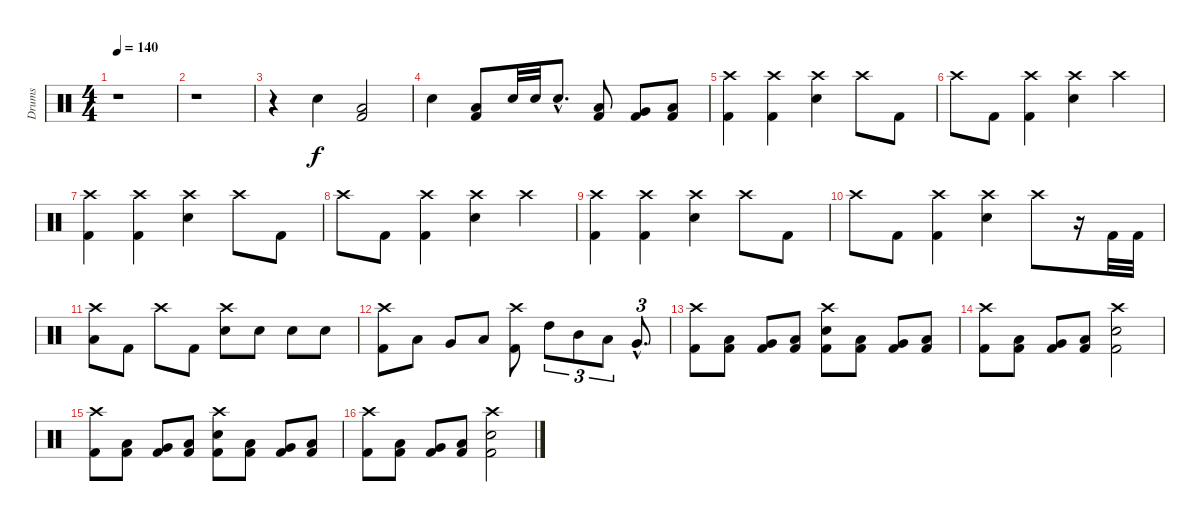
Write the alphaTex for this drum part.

\track ("Drums" "Drums") {instrument percussion}
\staff {score}
\articulation defaults
\ts (4 4)
\tempo 140
\clef neutral
\ks c
r.1{dy f} |
r.1 |
r.4 "Electric Snare (hit)".4 ("Low Floor Tom (hit)" "Kick (hit) 2").2 |
"Electric Snare (hit)".4 ("Low Floor Tom (hit)" "Kick (hit) 2").8 "Electric Snare (hit)".32 "Electric Snare (hit)".32 "Electric Snare (hit)"{hac}.8{d} ("Low Tom (hit)" "Kick (hit) 2").8 ("Very Low Tom (hit)" "Kick (hit) 2").8 ("Low Floor Tom (hit)" "Kick (hit) 2").8 |
("Crash high (hit)" "Kick (hit) 2").4 ("Crash high (hit)" "Kick (hit) 2").4 ("Crash high (hit)" "Electric Snare (hit)").4 "Crash high (hit)".8 "Kick (hit) 2".8 |
"Crash high (hit)".8 "Kick (hit) 2".8 ("Crash high (hit)" "Kick (hit) 2").4 ("Crash high (hit)" "Electric Snare (hit)").4 "Crash high (hit)".4 |
("Crash high (hit)" "Kick (hit) 2").4 ("Crash high (hit)" "Kick (hit) 2").4 ("Crash high (hit)" "Electric Snare (hit)").4 "Crash high (hit)".8 "Kick (hit) 2".8 |
"Crash high (hit)".8 "Kick (hit) 2".8 ("Crash high (hit)" "Kick (hit) 2").4 ("Crash high (hit)" "Electric Snare (hit)").4 "Crash high (hit)".4 |
("Crash high (hit)" "Kick (hit) 2").4 ("Crash high (hit)" "Kick (hit) 2").4 ("Crash high (hit)" "Electric Snare (hit)").4 "Crash high (hit)".8 "Kick (hit) 2".8 |
"Crash high (hit)".8 "Kick (hit) 2".8 ("Crash high (hit)" "Kick (hit) 2").4 ("Crash high (hit)" "Electric Snare (hit)").4 "Crash high (hit)".8 r.16 "Kick (hit) 2".32 "Kick (hit) 2".32 |
("Crash high (hit)" "Low Floor Tom (hit)").8 "Kick (hit) 2".8 "Crash high (hit)".8 "Kick (hit) 2".8 ("Crash high (hit)" "Electric Snare (hit)").8 "Electric Snare (hit)".8 "Electric Snare (hit)".8 "Electric Snare (hit)".8 |
("Crash high (hit)" "Kick (hit) 2").8 "Low Tom (hit)".8 "Very Low Tom (hit)".8 "Low Floor Tom (hit)".8 ("Crash high (hit)" "Kick (hit) 2").8 "High Tom (hit)".8{tu (3 2)} "Mid Tom (hit)".8{tu (3 2)} "Low Tom (hit)".8{tu (3 2)} "Very Low Tom (hit)"{hac}.8{d tu (3 2)} |
("Crash high (hit)" "Kick (hit) 2").8 ("Low Tom (hit)" "Kick (hit) 2").8 ("Very Low Tom (hit)" "Kick (hit) 2").8 ("Low Floor Tom (hit)" "Kick (hit) 2").8 ("Crash high (hit)" "Electric Snare (hit)" "Kick (hit) 2").8 ("Low Tom (hit)" "Kick (hit) 2").8 ("Very Low Tom (hit)" "Kick (hit) 2").8 ("Low Floor Tom (hit)" "Kick (hit) 2").8 |
("Crash high (hit)" "Kick (hit) 2").8 ("Low Tom (hit)" "Kick (hit) 2").8 ("Very Low Tom (hit)" "Kick (hit) 2").8 ("Low Floor Tom (hit)" "Kick (hit) 2").8 ("Crash high (hit)" "Electric Snare (hit)" "Kick (hit) 2").2 |
("Crash high (hit)" "Kick (hit) 2").8 ("Low Tom (hit)" "Kick (hit) 2").8 ("Very Low Tom (hit)" "Kick (hit) 2").8 ("Low Floor Tom (hit)" "Kick (hit) 2").8 ("Crash high (hit)" "Electric Snare (hit)" "Kick (hit) 2").8 ("Low Tom (hit)" "Kick (hit) 2").8 ("Very Low Tom (hit)" "Kick (hit) 2").8 ("Low Floor Tom (hit)" "Kick (hit) 2").8 |
("Crash high (hit)" "Kick (hit) 2").8 ("Low Tom (hit)" "Kick (hit) 2").8 ("Very Low Tom (hit)" "Kick (hit) 2").8 ("Low Floor Tom (hit)" "Kick (hit) 2").8 ("Crash high (hit)" "Electric Snare (hit)" "Kick (hit) 2").2
